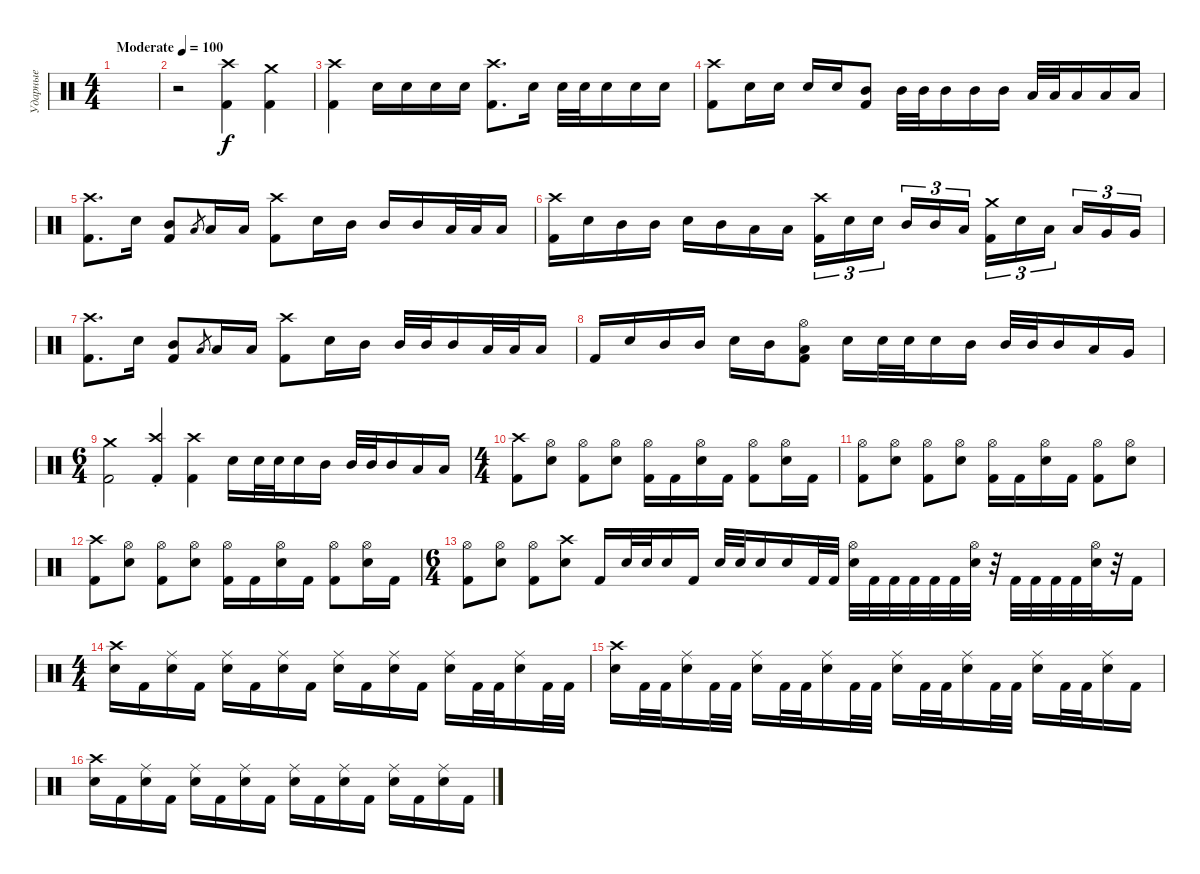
\track ("Ударные" "Ударные") {instrument percussion}
\staff
\articulation defaults
\ts (4 4)
\tempo (100 "Moderate")
\clef neutral
\ks c
|
r.2 ("Kick (hit) 2" "Crash high (hit)").4 ("Kick (hit) 2" "Crash medium (hit)").4 |
("Kick (hit) 2" "Crash high (hit)").4 "Electric Snare (hit)".16 "Electric Snare (hit)".16 "Electric Snare (hit)".16 "Electric Snare (hit)".16 ("Kick (hit) 2" "Crash high (hit)").8{d} "Electric Snare (hit)".16 "Electric Snare (hit)".32 "Electric Snare (hit)".32 "Electric Snare (hit)".16 "Electric Snare (hit)".16 "Electric Snare (hit)".16 |
("Kick (hit) 2" "Crash high (hit)").8 "Electric Snare (hit)".16 "Electric Snare (hit)".16 "Electric Snare (hit)".16 "Electric Snare (hit)".16 ("Kick (hit) 2" "Mid Tom (hit)").8 "Mid Tom (hit)".32 "Mid Tom (hit)".32 "Mid Tom (hit)".16 "Mid Tom (hit)".16 "Mid Tom (hit)".16 "Low Tom (hit)".32 "Low Tom (hit)".32 "Low Tom (hit)".16 "Low Tom (hit)".16 "Low Tom (hit)".16 |
("Kick (hit) 2" "Crash high (hit)").8{d} "Electric Snare (hit)".16 ("Kick (hit) 2" "Mid Tom (hit)").8 "Low Tom (hit)".8{gr} "Low Tom (hit)".16 "Low Tom (hit)".16 ("Kick (hit) 2" "Crash high (hit)").8 "Electric Snare (hit)".16 "Mid Tom (hit)".16 "Mid Tom (hit)".16 "Mid Tom (hit)".16 "Low Tom (hit)".32 "Low Tom (hit)".32 "Low Tom (hit)".16 |
("Kick (hit) 2" "Crash high (hit)").16 "Electric Snare (hit)".16 "Mid Tom (hit)".16 "Mid Tom (hit)".16 "Electric Snare (hit)".16 "Mid Tom (hit)".16 "Low Tom (hit)".16 "Low Tom (hit)".16 ("Kick (hit) 2" "Crash high (hit)").16{tu (3 2)} "Electric Snare (hit)".16{tu (3 2)} "Electric Snare (hit)".16{tu (3 2) beam splitsecondary} "Mid Tom (hit)".16{tu (3 2)} "Mid Tom (hit)".16{tu (3 2)} "Low Tom (hit)".16{tu (3 2)} ("Kick (hit) 2" "Crash medium (hit)").16{tu (3 2)} "Electric Snare (hit)".16{tu (3 2)} "Low Tom (hit)".16{tu (3 2) beam splitsecondary} "Low Tom (hit)".16{tu (3 2)} "Very Low Tom (hit)".16{tu (3 2)} "Very Low Tom (hit)".16{tu (3 2)} |
("Kick (hit) 2" "Crash high (hit)").8{d} "Electric Snare (hit)".16 ("Kick (hit) 2" "Mid Tom (hit)").8 "Low Tom (hit)".8{gr} "Low Tom (hit)".16 "Low Tom (hit)".16 ("Kick (hit) 2" "Crash high (hit)").8 "Electric Snare (hit)".16 "Mid Tom (hit)".16 "Mid Tom (hit)".32 "Mid Tom (hit)".32 "Mid Tom (hit)".16 "Low Tom (hit)".32 "Low Tom (hit)".32 "Low Tom (hit)".16 |
"Kick (hit) 2".16 "Electric Snare (hit)".16 "Mid Tom (hit)".16 "Mid Tom (hit)".16 "Electric Snare (hit)".16 "Mid Tom (hit)".16 ("Kick (hit) 2" "Low Tom (hit)" "Hi-Hat (open)").8 "Electric Snare (hit)".16{beam Down} "Electric Snare (hit)".32{beam Down} "Electric Snare (hit)".32{beam Down} "Electric Snare (hit)".16{beam Down} "Mid Tom (hit)".16{beam Down} "Mid Tom (hit)".32 "Mid Tom (hit)".32 "Mid Tom (hit)".16 "Low Tom (hit)".16 "Very Low Tom (hit)".16 |
\ts (6 4)
("Kick (hit) 2" "Crash medium (hit)").2 ("Kick (hit) 2" "Crash high (hit)"{st}).4{beam Up} ("Kick (hit) 2" "Crash high (hit)").4 "Electric Snare (hit)".16 "Electric Snare (hit)".32 "Electric Snare (hit)".32 "Electric Snare (hit)".16 "Mid Tom (hit)".16 "Mid Tom (hit)".32 "Mid Tom (hit)".32 "Mid Tom (hit)".16 "Low Tom (hit)".16 "Low Tom (hit)".16 |
\ts (4 4)
("Kick (hit) 2" "Crash high (hit)").8 ("Electric Snare (hit)" "Hi-Hat (open)").8 ("Kick (hit) 2" "Hi-Hat (open)").8 ("Electric Snare (hit)" "Hi-Hat (open)").8 ("Kick (hit) 2" "Hi-Hat (open)").16 "Kick (hit) 2".16 ("Electric Snare (hit)" "Hi-Hat (open)").16 "Kick (hit) 2".16 ("Kick (hit) 2" "Hi-Hat (open)").8 ("Electric Snare (hit)" "Hi-Hat (open)").16 "Kick (hit) 2".16 |
("Kick (hit) 2" "Hi-Hat (open)").8 ("Electric Snare (hit)" "Hi-Hat (open)").8 ("Kick (hit) 2" "Hi-Hat (open)").8 ("Electric Snare (hit)" "Hi-Hat (open)").8 ("Kick (hit) 2" "Hi-Hat (open)").16 "Kick (hit) 2".16 ("Electric Snare (hit)" "Hi-Hat (open)").16 "Kick (hit) 2".16 ("Kick (hit) 2" "Hi-Hat (open)").8 ("Electric Snare (hit)" "Hi-Hat (open)").8 |
("Kick (hit) 2" "Crash high (hit)").8 ("Electric Snare (hit)" "Hi-Hat (open)").8 ("Kick (hit) 2" "Hi-Hat (open)").8 ("Electric Snare (hit)" "Hi-Hat (open)").8 ("Kick (hit) 2" "Hi-Hat (open)").16 "Kick (hit) 2".16 ("Electric Snare (hit)" "Hi-Hat (open)").16 "Kick (hit) 2".16 ("Kick (hit) 2" "Hi-Hat (open)").8 ("Electric Snare (hit)" "Hi-Hat (open)").16 "Kick (hit) 2".16 |
\ts (6 4)
("Kick (hit) 2" "Hi-Hat (open)").8 ("Electric Snare (hit)" "Hi-Hat (open)").8 ("Kick (hit) 2" "Hi-Hat (open)").8 ("Electric Snare (hit)" "Crash high (hit)").8 "Kick (hit) 2".16 "Electric Snare (hit)".32 "Electric Snare (hit)".32 "Electric Snare (hit)".16 "Kick (hit) 2".16 "Electric Snare (hit)".32 "Electric Snare (hit)".32 "Electric Snare (hit)".16 "Electric Snare (hit)".16 "Kick (hit) 2".32 "Kick (hit) 2".32 ("Electric Snare (hit)" "Hi-Hat (open)").32 "Kick (hit) 2".32 "Kick (hit) 2".32 "Kick (hit) 2".32 "Kick (hit) 2".32 "Kick (hit) 2".32 ("Electric Snare (hit)" "Hi-Hat (open)").32 r.32 "Kick (hit) 2".32 "Kick (hit) 2".32 "Kick (hit) 2".32 "Kick (hit) 2".32 ("Electric Snare (hit)" "Hi-Hat (open)").32 r.32 "Kick (hit) 2".16 |
\ts (4 4)
("Electric Snare (hit)" "Crash high (hit)").16 "Kick (hit) 2".16 ("Electric Snare (hit)" "Ride (middle)").16 "Kick (hit) 2".16 ("Electric Snare (hit)" "Ride (middle)").16 "Kick (hit) 2".16 ("Electric Snare (hit)" "Ride (middle)").16 "Kick (hit) 2".16 ("Electric Snare (hit)" "Ride (middle)").16 "Kick (hit) 2".16 ("Electric Snare (hit)" "Ride (middle)").16 "Kick (hit) 2".16 ("Electric Snare (hit)" "Ride (middle)").16 "Kick (hit) 2".32 "Kick (hit) 2".32 ("Electric Snare (hit)" "Ride (middle)").16 "Kick (hit) 2".32 "Kick (hit) 2".32 |
("Electric Snare (hit)" "Crash high (hit)").16 "Kick (hit) 2".32 "Kick (hit) 2".32 ("Electric Snare (hit)" "Ride (middle)").16 "Kick (hit) 2".32 "Kick (hit) 2".32 ("Electric Snare (hit)" "Ride (middle)").16 "Kick (hit) 2".32 "Kick (hit) 2".32 ("Electric Snare (hit)" "Ride (middle)").16 "Kick (hit) 2".32 "Kick (hit) 2".32 ("Electric Snare (hit)" "Ride (middle)").16 "Kick (hit) 2".32 "Kick (hit) 2".32 ("Electric Snare (hit)" "Ride (middle)").16 "Kick (hit) 2".32 "Kick (hit) 2".32 ("Electric Snare (hit)" "Ride (middle)").16 "Kick (hit) 2".32 "Kick (hit) 2".32 ("Electric Snare (hit)" "Ride (middle)").16 "Kick (hit) 2".16 |
("Electric Snare (hit)" "Crash high (hit)").16 "Kick (hit) 2".16 ("Electric Snare (hit)" "Ride (middle)").16 "Kick (hit) 2".16 ("Electric Snare (hit)" "Ride (middle)").16 "Kick (hit) 2".16 ("Electric Snare (hit)" "Ride (middle)").16 "Kick (hit) 2".16 ("Electric Snare (hit)" "Ride (middle)").16 "Kick (hit) 2".16 ("Electric Snare (hit)" "Ride (middle)").16 "Kick (hit) 2".16 ("Electric Snare (hit)" "Ride (middle)").16 "Kick (hit) 2".16 ("Electric Snare (hit)" "Ride (middle)").16 "Kick (hit) 2".16
